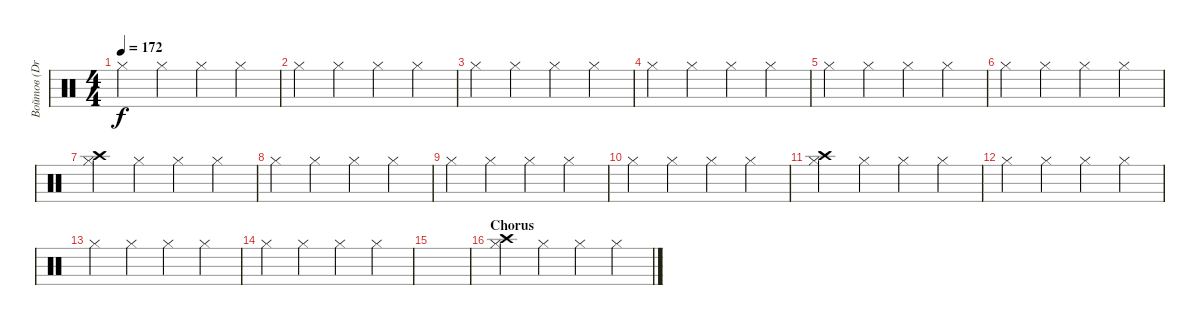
\track ("Войтов (Drums)" "Войтов (Dr") {instrument percussion}
\staff {score}
\articulation defaults
\ts (4 4)
\tempo 172
\clef neutral
\ks c "Hi-Hat (closed)".4{dy f} "Hi-Hat (closed)".4 "Hi-Hat (closed)".4 "Hi-Hat (closed)".4
|
"Hi-Hat (closed)".4 "Hi-Hat (closed)".4 "Hi-Hat (closed)".4 "Hi-Hat (closed)".4 |
"Hi-Hat (closed)".4 "Hi-Hat (closed)".4 "Hi-Hat (closed)".4 "Hi-Hat (closed)".4 |
"Hi-Hat (closed)".4 "Hi-Hat (closed)".4 "Hi-Hat (closed)".4 "Hi-Hat (closed)".4 |
"Hi-Hat (closed)".4 "Hi-Hat (closed)".4 "Hi-Hat (closed)".4 "Hi-Hat (closed)".4 |
"Hi-Hat (closed)".4 "Hi-Hat (closed)".4 "Hi-Hat (closed)".4 "Hi-Hat (closed)".4 |
("Hi-Hat (closed)" "Crash high (hit)").4 "Hi-Hat (closed)".4 "Hi-Hat (closed)".4 "Hi-Hat (closed)".4 |
"Hi-Hat (closed)".4 "Hi-Hat (closed)".4 "Hi-Hat (closed)".4 "Hi-Hat (closed)".4 |
"Hi-Hat (closed)".4 "Hi-Hat (closed)".4 "Hi-Hat (closed)".4 "Hi-Hat (closed)".4 |
"Hi-Hat (closed)".4 "Hi-Hat (closed)".4 "Hi-Hat (closed)".4 "Hi-Hat (closed)".4 |
("Crash high (hit)" "Hi-Hat (closed)").4 "Hi-Hat (closed)".4 "Hi-Hat (closed)".4 "Hi-Hat (closed)".4 |
"Hi-Hat (closed)".4 "Hi-Hat (closed)".4 "Hi-Hat (closed)".4 "Hi-Hat (closed)".4 |
"Hi-Hat (closed)".4 "Hi-Hat (closed)".4 "Hi-Hat (closed)".4 "Hi-Hat (closed)".4 |
"Hi-Hat (closed)".4 "Hi-Hat (closed)".4 "Hi-Hat (closed)".4 "Hi-Hat (closed)".4 |
|
\section ("" "Chorus")
("Crash high (hit)" "Hi-Hat (closed)").4 "Hi-Hat (closed)".4 "Hi-Hat (closed)".4 "Hi-Hat (closed)".4
